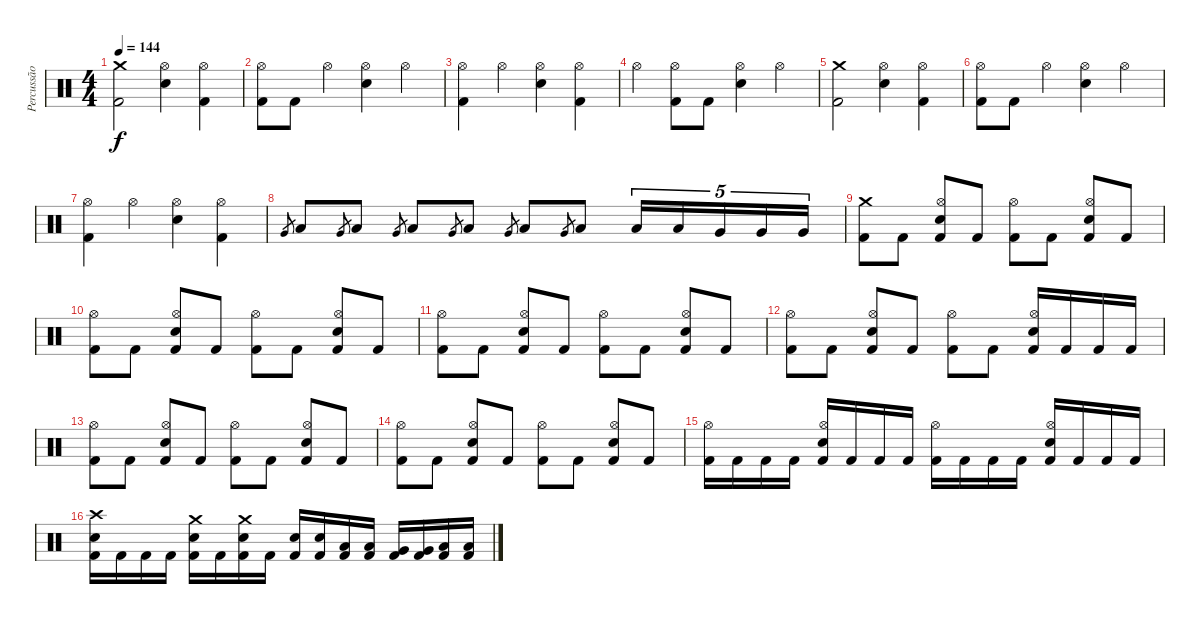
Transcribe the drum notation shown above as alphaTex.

\track ("Percussão" "Percussão") {instrument percussion}
\staff {score}
\articulation defaults
\ts (4 4)
\tempo 144
\clef neutral
\ks c
("Crash medium (hit)" "Kick (hit) 2").2{dy f} ("Hi-Hat (open)" "Electric Snare (hit)").4 ("Hi-Hat (open)" "Kick (hit) 2").4 |
("Hi-Hat (open)" "Kick (hit) 2").8 "Kick (hit) 2".8 "Hi-Hat (open)".4 ("Hi-Hat (open)" "Electric Snare (hit)").4 "Hi-Hat (open)".4 |
("Hi-Hat (open)" "Kick (hit) 2").4 "Hi-Hat (open)".4 ("Hi-Hat (open)" "Electric Snare (hit)").4 ("Hi-Hat (open)" "Kick (hit) 2").4 |
"Hi-Hat (open)".4 ("Hi-Hat (open)" "Kick (hit) 2").8 "Kick (hit) 2".8 ("Hi-Hat (open)" "Electric Snare (hit)").4 "Hi-Hat (open)".4 |
("Crash medium (hit)" "Kick (hit) 2").2 ("Hi-Hat (open)" "Electric Snare (hit)").4 ("Hi-Hat (open)" "Kick (hit) 2").4 |
("Hi-Hat (open)" "Kick (hit) 2").8 "Kick (hit) 2".8 "Hi-Hat (open)".4 ("Hi-Hat (open)" "Electric Snare (hit)").4 "Hi-Hat (open)".4 |
("Hi-Hat (open)" "Kick (hit) 2").4 "Hi-Hat (open)".4 ("Hi-Hat (open)" "Electric Snare (hit)").4 ("Hi-Hat (open)" "Kick (hit) 2").4 |
"Very Low Tom (hit)".8{gr} "Low Tom (hit)".8 "Very Low Tom (hit)".8{gr} "Low Tom (hit)".8 "Very Low Tom (hit)".8{gr} "Low Tom (hit)".8 "Very Low Tom (hit)".8{gr} "Low Tom (hit)".8 "Very Low Tom (hit)".8{gr} "Low Tom (hit)".8 "Very Low Tom (hit)".8{gr} "Low Tom (hit)".8 "Low Tom (hit)".16{tu (5 4)} "Low Tom (hit)".16{tu (5 4)} "Very Low Tom (hit)".16{tu (5 4)} "Very Low Tom (hit)".16{tu (5 4)} "Very Low Tom (hit)".16{tu (5 4)} |
("Crash medium (hit)" "Kick (hit) 2").8 "Kick (hit) 2".8 ("Hi-Hat (open)" "Electric Snare (hit)" "Kick (hit) 2").8 "Kick (hit) 2".8 ("Hi-Hat (open)" "Kick (hit) 2").8 "Kick (hit) 2".8 ("Hi-Hat (open)" "Electric Snare (hit)" "Kick (hit) 2").8 "Kick (hit) 2".8 |
("Hi-Hat (open)" "Kick (hit) 2").8 "Kick (hit) 2".8 ("Hi-Hat (open)" "Electric Snare (hit)" "Kick (hit) 2").8 "Kick (hit) 2".8 ("Hi-Hat (open)" "Kick (hit) 2").8 "Kick (hit) 2".8 ("Hi-Hat (open)" "Electric Snare (hit)" "Kick (hit) 2").8 "Kick (hit) 2".8 |
("Hi-Hat (open)" "Kick (hit) 2").8 "Kick (hit) 2".8 ("Hi-Hat (open)" "Electric Snare (hit)" "Kick (hit) 2").8 "Kick (hit) 2".8 ("Hi-Hat (open)" "Kick (hit) 2").8 "Kick (hit) 2".8 ("Hi-Hat (open)" "Electric Snare (hit)" "Kick (hit) 2").8 "Kick (hit) 2".8 |
("Hi-Hat (open)" "Kick (hit) 2").8 "Kick (hit) 2".8 ("Hi-Hat (open)" "Electric Snare (hit)" "Kick (hit) 2").8 "Kick (hit) 2".8 ("Hi-Hat (open)" "Kick (hit) 2").8 "Kick (hit) 2".8 ("Hi-Hat (open)" "Electric Snare (hit)" "Kick (hit) 2").16 "Kick (hit) 2".16 "Kick (hit) 2".16 "Kick (hit) 2".16 |
("Hi-Hat (open)" "Kick (hit) 2").8 "Kick (hit) 2".8 ("Hi-Hat (open)" "Electric Snare (hit)" "Kick (hit) 2").8 "Kick (hit) 2".8 ("Hi-Hat (open)" "Kick (hit) 2").8 "Kick (hit) 2".8 ("Hi-Hat (open)" "Electric Snare (hit)" "Kick (hit) 2").8 "Kick (hit) 2".8 |
("Hi-Hat (open)" "Kick (hit) 2").8 "Kick (hit) 2".8 ("Hi-Hat (open)" "Electric Snare (hit)" "Kick (hit) 2").8 "Kick (hit) 2".8 ("Hi-Hat (open)" "Kick (hit) 2").8 "Kick (hit) 2".8 ("Hi-Hat (open)" "Electric Snare (hit)" "Kick (hit) 2").8 "Kick (hit) 2".8 |
("Hi-Hat (open)" "Kick (hit) 2").16 "Kick (hit) 2".16 "Kick (hit) 2".16 "Kick (hit) 2".16 ("Hi-Hat (open)" "Electric Snare (hit)" "Kick (hit) 2").16 "Kick (hit) 2".16 "Kick (hit) 2".16 "Kick (hit) 2".16 ("Hi-Hat (open)" "Kick (hit) 2").16 "Kick (hit) 2".16 "Kick (hit) 2".16 "Kick (hit) 2".16 ("Hi-Hat (open)" "Electric Snare (hit)" "Kick (hit) 2").16 "Kick (hit) 2".16 "Kick (hit) 2".16 "Kick (hit) 2".16 |
("Crash high (hit)" "Electric Snare (hit)" "Kick (hit) 2").16 "Kick (hit) 2".16 "Kick (hit) 2".16 "Kick (hit) 2".16 ("Crash medium (hit)" "Electric Snare (hit)" "Kick (hit) 2").16 "Kick (hit) 2".16 ("Crash medium (hit)" "Electric Snare (hit)" "Kick (hit) 2").16 "Kick (hit) 2".16 ("Electric Snare (hit)" "Kick (hit) 2").16 ("Electric Snare (hit)" "Kick (hit) 2").16 ("Low Tom (hit)" "Kick (hit) 2").16 ("Low Tom (hit)" "Kick (hit) 2").16 ("Very Low Tom (hit)" "Kick (hit) 2").16 ("Very Low Tom (hit)" "Kick (hit) 2").16 ("Low Floor Tom (hit)" "Kick (hit) 2").16 ("Low Floor Tom (hit)" "Kick (hit) 2").16
